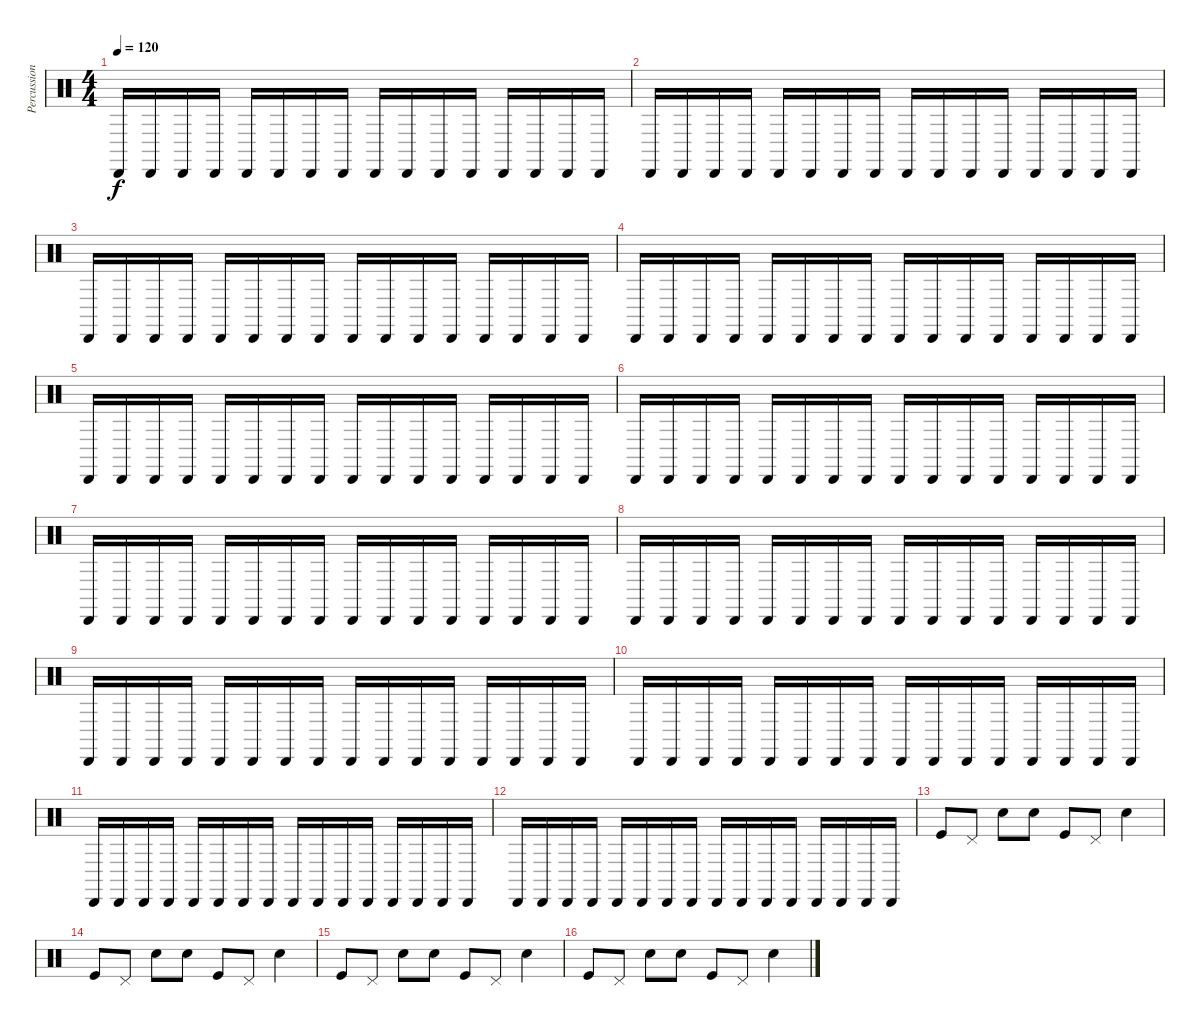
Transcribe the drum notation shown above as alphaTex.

\track ("Percussion" "Percussion") {instrument percussion}
\staff {score}
\articulation defaults
\ts (4 4)
\tempo 120
\clef neutral
\ks c "Cabasa (hit)".16{dy f} "Cabasa (hit)".16 "Cabasa (hit)".16 "Cabasa (hit)".16 "Cabasa (hit)".16 "Cabasa (hit)".16 "Cabasa (hit)".16 "Cabasa (hit)".16 "Cabasa (hit)".16 "Cabasa (hit)".16 "Cabasa (hit)".16 "Cabasa (hit)".16 "Cabasa (hit)".16 "Cabasa (hit)".16 "Cabasa (hit)".16 "Cabasa (hit)".16
|
"Cabasa (hit)".16 "Cabasa (hit)".16 "Cabasa (hit)".16 "Cabasa (hit)".16 "Cabasa (hit)".16 "Cabasa (hit)".16 "Cabasa (hit)".16 "Cabasa (hit)".16 "Cabasa (hit)".16 "Cabasa (hit)".16 "Cabasa (hit)".16 "Cabasa (hit)".16 "Cabasa (hit)".16 "Cabasa (hit)".16 "Cabasa (hit)".16 "Cabasa (hit)".16 |
"Cabasa (hit)".16 "Cabasa (hit)".16 "Cabasa (hit)".16 "Cabasa (hit)".16 "Cabasa (hit)".16 "Cabasa (hit)".16 "Cabasa (hit)".16 "Cabasa (hit)".16 "Cabasa (hit)".16 "Cabasa (hit)".16 "Cabasa (hit)".16 "Cabasa (hit)".16 "Cabasa (hit)".16 "Cabasa (hit)".16 "Cabasa (hit)".16 "Cabasa (hit)".16 |
"Cabasa (hit)".16 "Cabasa (hit)".16 "Cabasa (hit)".16 "Cabasa (hit)".16 "Cabasa (hit)".16 "Cabasa (hit)".16 "Cabasa (hit)".16 "Cabasa (hit)".16 "Cabasa (hit)".16 "Cabasa (hit)".16 "Cabasa (hit)".16 "Cabasa (hit)".16 "Cabasa (hit)".16 "Cabasa (hit)".16 "Cabasa (hit)".16 "Cabasa (hit)".16 |
"Cabasa (hit)".16 "Cabasa (hit)".16 "Cabasa (hit)".16 "Cabasa (hit)".16 "Cabasa (hit)".16 "Cabasa (hit)".16 "Cabasa (hit)".16 "Cabasa (hit)".16 "Cabasa (hit)".16 "Cabasa (hit)".16 "Cabasa (hit)".16 "Cabasa (hit)".16 "Cabasa (hit)".16 "Cabasa (hit)".16 "Cabasa (hit)".16 "Cabasa (hit)".16 |
"Cabasa (hit)".16 "Cabasa (hit)".16 "Cabasa (hit)".16 "Cabasa (hit)".16 "Cabasa (hit)".16 "Cabasa (hit)".16 "Cabasa (hit)".16 "Cabasa (hit)".16 "Cabasa (hit)".16 "Cabasa (hit)".16 "Cabasa (hit)".16 "Cabasa (hit)".16 "Cabasa (hit)".16 "Cabasa (hit)".16 "Cabasa (hit)".16 "Cabasa (hit)".16 |
"Cabasa (hit)".16 "Cabasa (hit)".16 "Cabasa (hit)".16 "Cabasa (hit)".16 "Cabasa (hit)".16 "Cabasa (hit)".16 "Cabasa (hit)".16 "Cabasa (hit)".16 "Cabasa (hit)".16 "Cabasa (hit)".16 "Cabasa (hit)".16 "Cabasa (hit)".16 "Cabasa (hit)".16 "Cabasa (hit)".16 "Cabasa (hit)".16 "Cabasa (hit)".16 |
"Cabasa (hit)".16 "Cabasa (hit)".16 "Cabasa (hit)".16 "Cabasa (hit)".16 "Cabasa (hit)".16 "Cabasa (hit)".16 "Cabasa (hit)".16 "Cabasa (hit)".16 "Cabasa (hit)".16 "Cabasa (hit)".16 "Cabasa (hit)".16 "Cabasa (hit)".16 "Cabasa (hit)".16 "Cabasa (hit)".16 "Cabasa (hit)".16 "Cabasa (hit)".16 |
"Cabasa (hit)".16 "Cabasa (hit)".16 "Cabasa (hit)".16 "Cabasa (hit)".16 "Cabasa (hit)".16 "Cabasa (hit)".16 "Cabasa (hit)".16 "Cabasa (hit)".16 "Cabasa (hit)".16 "Cabasa (hit)".16 "Cabasa (hit)".16 "Cabasa (hit)".16 "Cabasa (hit)".16 "Cabasa (hit)".16 "Cabasa (hit)".16 "Cabasa (hit)".16 |
"Cabasa (hit)".16 "Cabasa (hit)".16 "Cabasa (hit)".16 "Cabasa (hit)".16 "Cabasa (hit)".16 "Cabasa (hit)".16 "Cabasa (hit)".16 "Cabasa (hit)".16 "Cabasa (hit)".16 "Cabasa (hit)".16 "Cabasa (hit)".16 "Cabasa (hit)".16 "Cabasa (hit)".16 "Cabasa (hit)".16 "Cabasa (hit)".16 "Cabasa (hit)".16 |
"Cabasa (hit)".16 "Cabasa (hit)".16 "Cabasa (hit)".16 "Cabasa (hit)".16 "Cabasa (hit)".16 "Cabasa (hit)".16 "Cabasa (hit)".16 "Cabasa (hit)".16 "Cabasa (hit)".16 "Cabasa (hit)".16 "Cabasa (hit)".16 "Cabasa (hit)".16 "Cabasa (hit)".16 "Cabasa (hit)".16 "Cabasa (hit)".16 "Cabasa (hit)".16 |
"Cabasa (hit)".16 "Cabasa (hit)".16 "Cabasa (hit)".16 "Cabasa (hit)".16 "Cabasa (hit)".16 "Cabasa (hit)".16 "Cabasa (hit)".16 "Cabasa (hit)".16 "Cabasa (hit)".16 "Cabasa (hit)".16 "Cabasa (hit)".16 "Cabasa (hit)".16 "Cabasa (hit)".16 "Cabasa (hit)".16 "Cabasa (hit)".16 "Cabasa (hit)".16 |
"Kick (hit)".8 "Pedal Hi-Hat (hit)".8 "Hand Clap (hit)".8 "Hand Clap (hit)".8 "Kick (hit)".8 "Pedal Hi-Hat (hit)".8 "Hand Clap (hit)".4 |
"Kick (hit)".8 "Pedal Hi-Hat (hit)".8 "Hand Clap (hit)".8 "Hand Clap (hit)".8 "Kick (hit)".8 "Pedal Hi-Hat (hit)".8 "Hand Clap (hit)".4 |
"Kick (hit)".8 "Pedal Hi-Hat (hit)".8 "Hand Clap (hit)".8 "Hand Clap (hit)".8 "Kick (hit)".8 "Pedal Hi-Hat (hit)".8 "Hand Clap (hit)".4 |
"Kick (hit)".8 "Pedal Hi-Hat (hit)".8 "Hand Clap (hit)".8 "Hand Clap (hit)".8 "Kick (hit)".8 "Pedal Hi-Hat (hit)".8 "Hand Clap (hit)".4
